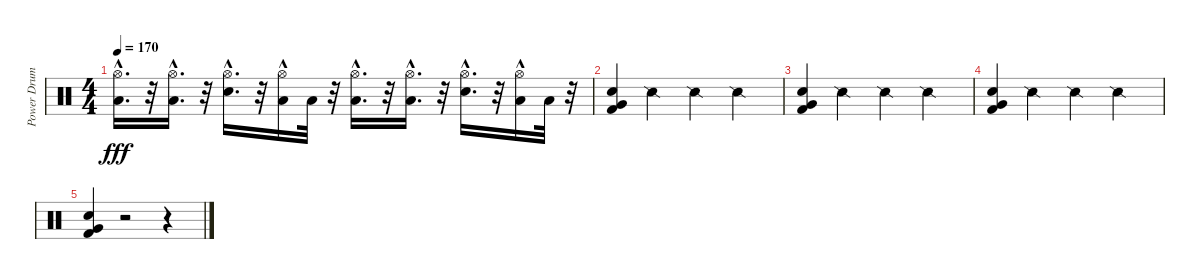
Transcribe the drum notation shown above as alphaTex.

\track ("Power Drums " "Power Drum") {instrument percussion}
\staff {score}
\articulation defaults
\ts (4 4)
\tempo 170
\clef neutral
\ks c
("Hi-Hat (open)"{hac} "Low Floor Tom (hit)"{hac}).16{d dy fff} r.32 ("Hi-Hat (open)"{hac} "Low Floor Tom (hit)"{hac}).16{d} r.32 ("Snare (hit) 2"{hac} "Hi-Hat (open)"{hac}).16{d} r.32 ("Hi-Hat (open)"{hac} "Low Floor Tom (hit)").16 "Low Floor Tom (hit)".32 r.32 ("Hi-Hat (open)"{hac} "Low Floor Tom (hit)"{hac}).16{d} r.32 ("Hi-Hat (open)"{hac} "Low Floor Tom (hit)"{hac}).16{d} r.32 ("Snare (hit) 2"{hac} "Hi-Hat (open)"{hac}).16{d} r.32 ("Hi-Hat (open)"{hac} "Low Floor Tom (hit)").16 "Low Floor Tom (hit)".32 r.32 |
("Very Low Tom (hit)" "Electric Snare (hit)" "Kick (hit) 2").4 "Snare (side stick) 2".4 "Snare (side stick) 2".4 "Snare (side stick) 2".4 |
("Very Low Tom (hit)" "Electric Snare (hit)" "Kick (hit) 2").4 "Snare (side stick) 2".4 "Snare (side stick) 2".4 "Snare (side stick) 2".4 |
("Very Low Tom (hit)" "Electric Snare (hit)" "Kick (hit) 2").4 "Snare (side stick) 2".4 "Snare (side stick) 2".4 "Snare (side stick) 2".4 |
("Very Low Tom (hit)" "Electric Snare (hit)" "Kick (hit) 2").4 r.2 r.4
